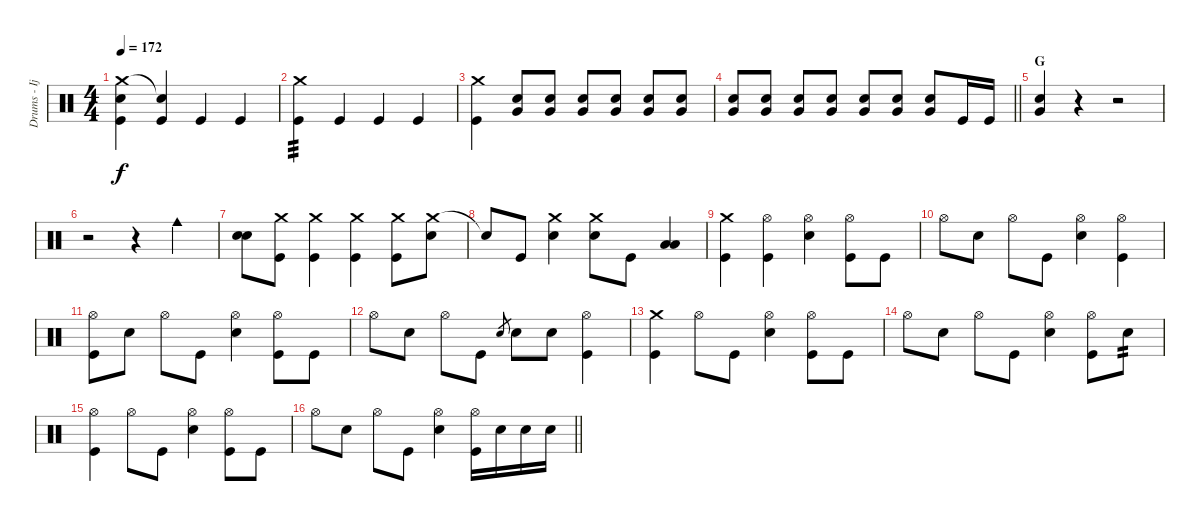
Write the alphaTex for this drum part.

\track ("Drums - Ijichi" "Drums - Ij") {instrument percussion}
\staff {score}
\articulation defaults
\ts (4 4)
\tempo 172
\clef neutral
\ks c
("Crash medium (hit)" "Electric Snare (hit)" "Kick (hit)").4{dy f} ("Snare (hit)"{t} "Kick (hit)").4 "Kick (hit)".4 "Kick (hit)".4 |
("Crash medium (hit)" "Kick (hit)").4{tp 3 volume 10} "Kick (hit)".4{volume 13} "Kick (hit)".4 "Kick (hit)".4 |
("Crash medium (hit)" "Kick (hit)").4 ("Electric Snare (hit)" "Very Low Tom (hit)").8{volume 10} ("Electric Snare (hit)" "Very Low Tom (hit)").8{volume 13} ("Electric Snare (hit)" "Very Low Tom (hit)").8 ("Electric Snare (hit)" "Very Low Tom (hit)").8 ("Electric Snare (hit)" "Very Low Tom (hit)").8 ("Electric Snare (hit)" "Very Low Tom (hit)").8 |
\barLineRight lightlight
("Electric Snare (hit)" "Very Low Tom (hit)").8 ("Electric Snare (hit)" "Very Low Tom (hit)").8 ("Electric Snare (hit)" "Very Low Tom (hit)").8 ("Electric Snare (hit)" "Very Low Tom (hit)").8 ("Electric Snare (hit)" "Very Low Tom (hit)").8 ("Electric Snare (hit)" "Very Low Tom (hit)").8 ("Electric Snare (hit)" "Very Low Tom (hit)").8 "Kick (hit)".16 "Kick (hit)".16 |
\section ("" "G")
("Electric Snare (hit)" "Very Low Tom (hit)").4 r.4 r.2 |
r.2 r.4 "Cowbell medium (hit)".4 |
("Electric Snare (hit)" "Electric Snare (hit)").8 ("Crash medium (hit)" "Kick (hit)").8 ("Crash medium (hit)" "Kick (hit)").4 ("Crash medium (hit)" "Kick (hit)").4 ("Crash medium (hit)" "Kick (hit)").8 ("Crash medium (hit)" "Electric Snare (hit)").8 |
"Snare (hit)"{t}.8 "Kick (hit)".8 ("Crash medium (hit)" "Electric Snare (hit)").4 ("Crash medium (hit)" "Electric Snare (hit)").8 "Kick (hit)".8 ("Low Tom (hit)" "Low Tom (hit)").4 |
("Crash medium (hit)" "Kick (hit)").4 ("Hi-Hat (open)" "Kick (hit)").4 ("Hi-Hat (open)" "Electric Snare (hit)").4 ("Hi-Hat (open)" "Kick (hit)").8 "Kick (hit)".8 |
"Hi-Hat (open)".8 "Electric Snare (hit)".8 "Hi-Hat (open)".8 "Kick (hit)".8 ("Hi-Hat (open)" "Electric Snare (hit)").4 ("Hi-Hat (open)" "Kick (hit)").4 |
("Hi-Hat (open)" "Kick (hit)").8 "Electric Snare (hit)".8 "Hi-Hat (open)".8 "Kick (hit)".8 ("Hi-Hat (open)" "Electric Snare (hit)").4 ("Hi-Hat (open)" "Kick (hit)").8 "Kick (hit)".8 |
"Hi-Hat (open)".8 "Electric Snare (hit)".8 "Hi-Hat (open)".8 "Kick (hit)".8 "Electric Snare (hit)".8{gr} "Electric Snare (hit)".8 "Electric Snare (hit)".8 ("Hi-Hat (open)" "Kick (hit)").4 |
("Crash medium (hit)" "Kick (hit)").4 "Hi-Hat (open)".8 "Kick (hit)".8 ("Hi-Hat (open)" "Electric Snare (hit)").4 ("Hi-Hat (open)" "Kick (hit)").8 "Kick (hit)".8 |
"Hi-Hat (open)".8 "Electric Snare (hit)".8 "Hi-Hat (open)".8 "Kick (hit)".8 ("Hi-Hat (open)" "Electric Snare (hit)").4 ("Hi-Hat (open)" "Kick (hit)").8 "Electric Snare (hit)".8{tp 2} |
("Hi-Hat (open)" "Kick (hit)").4 "Hi-Hat (open)".8 "Kick (hit)".8 ("Hi-Hat (open)" "Electric Snare (hit)").4 ("Hi-Hat (open)" "Kick (hit)").8 "Kick (hit)".8 |
\barLineRight lightlight "Hi-Hat (open)".8 "Electric Snare (hit)".8 "Hi-Hat (open)".8 "Kick (hit)".8
("Hi-Hat (open)" "Electric Snare (hit)").4 ("Hi-Hat (open)" "Kick (hit)").16 "Electric Snare (hit)".16 "Electric Snare (hit)".16 "Electric Snare (hit)".16
